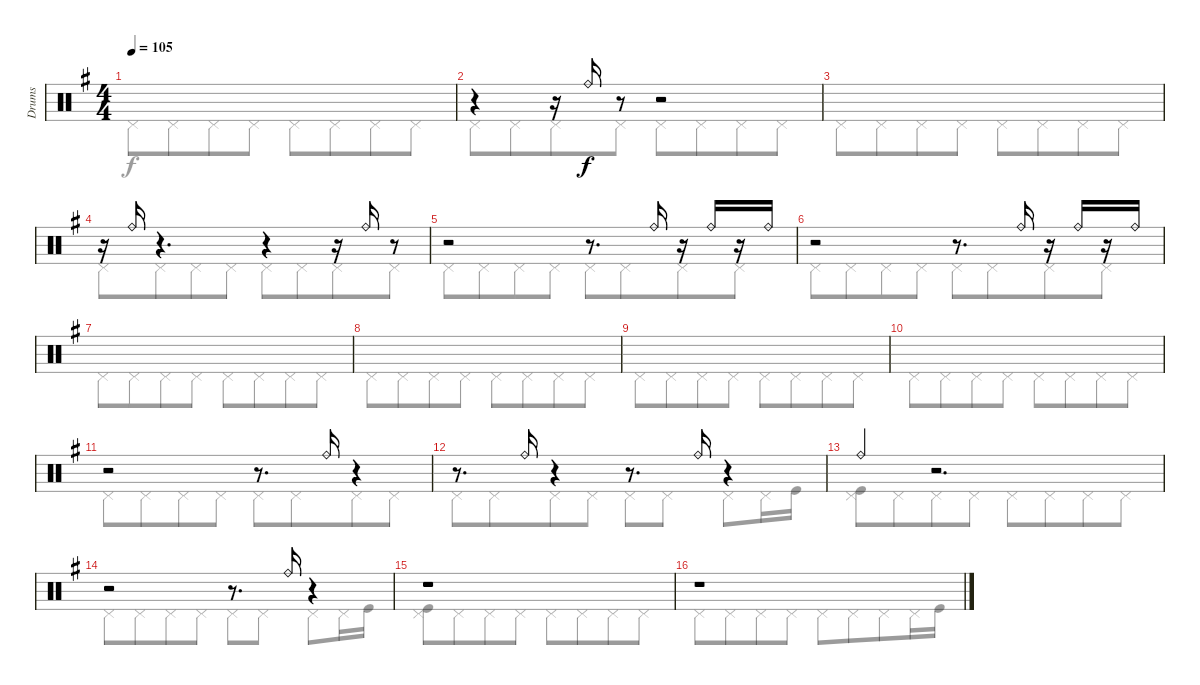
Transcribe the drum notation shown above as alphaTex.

\track ("Drums" "Drums") {instrument percussion}
\staff {score}
\articulation defaults
\voice
\ts (4 4)
\tempo 105
\clef neutral
\ks eminor
|
r.4 r.16 "Ride (bell)".16 r.8 r.2 |
|
r.16 "Ride (bell)".16 r.4{d} r.4 r.16 "Ride (bell)".16 r.8 |
r.2 r.8{d} "Ride (bell)".16 r.16 "Ride (bell)".16 r.16 "Ride (bell)".16 |
r.2 r.8{d} "Ride (bell)".16 r.16 "Ride (bell)".16 r.16 "Ride (bell)".16 |
|
|
|
|
r.2 r.8{d} "Ride (bell)".16 r.4 |
r.8{d} "Ride (bell)".16 r.4 r.8{d} "Ride (bell)".16 r.4 |
"Ride (bell)".4 r.2{d} |
r.2 r.8{d} "Ride (bell)".16 r.4 |
r.1 |
r.1
\voice
\clef neutral
\ottava regular
\simile none
\ks eminor "Pedal Hi-Hat (hit)".8{dy f} "Pedal Hi-Hat (hit)".8{beam merge} "Pedal Hi-Hat (hit)".8 "Pedal Hi-Hat (hit)".8 "Pedal Hi-Hat (hit)".8 "Pedal Hi-Hat (hit)".8{beam merge} "Pedal Hi-Hat (hit)".8 "Pedal Hi-Hat (hit)".8
|
"Pedal Hi-Hat (hit)".8 "Pedal Hi-Hat (hit)".8{beam merge} "Pedal Hi-Hat (hit)".8 "Pedal Hi-Hat (hit)".8 "Pedal Hi-Hat (hit)".8 "Pedal Hi-Hat (hit)".8{beam merge} "Pedal Hi-Hat (hit)".8 "Pedal Hi-Hat (hit)".8 |
"Pedal Hi-Hat (hit)".8 "Pedal Hi-Hat (hit)".8{beam merge} "Pedal Hi-Hat (hit)".8 "Pedal Hi-Hat (hit)".8 "Pedal Hi-Hat (hit)".8 "Pedal Hi-Hat (hit)".8{beam merge} "Pedal Hi-Hat (hit)".8 "Pedal Hi-Hat (hit)".8 |
"Pedal Hi-Hat (hit)".8 "Pedal Hi-Hat (hit)".8{beam merge} "Pedal Hi-Hat (hit)".8 "Pedal Hi-Hat (hit)".8 "Pedal Hi-Hat (hit)".8 "Pedal Hi-Hat (hit)".8{beam merge} "Pedal Hi-Hat (hit)".8 "Pedal Hi-Hat (hit)".8 |
"Pedal Hi-Hat (hit)".8 "Pedal Hi-Hat (hit)".8{beam merge} "Pedal Hi-Hat (hit)".8 "Pedal Hi-Hat (hit)".8 "Pedal Hi-Hat (hit)".8 "Pedal Hi-Hat (hit)".8{beam merge} "Pedal Hi-Hat (hit)".8 "Pedal Hi-Hat (hit)".8 |
"Pedal Hi-Hat (hit)".8 "Pedal Hi-Hat (hit)".8{beam merge} "Pedal Hi-Hat (hit)".8 "Pedal Hi-Hat (hit)".8 "Pedal Hi-Hat (hit)".8 "Pedal Hi-Hat (hit)".8{beam merge} "Pedal Hi-Hat (hit)".8 "Pedal Hi-Hat (hit)".8 |
"Pedal Hi-Hat (hit)".8 "Pedal Hi-Hat (hit)".8{beam merge} "Pedal Hi-Hat (hit)".8 "Pedal Hi-Hat (hit)".8 "Pedal Hi-Hat (hit)".8 "Pedal Hi-Hat (hit)".8{beam merge} "Pedal Hi-Hat (hit)".8 "Pedal Hi-Hat (hit)".8 |
"Pedal Hi-Hat (hit)".8 "Pedal Hi-Hat (hit)".8{beam merge} "Pedal Hi-Hat (hit)".8 "Pedal Hi-Hat (hit)".8 "Pedal Hi-Hat (hit)".8 "Pedal Hi-Hat (hit)".8{beam merge} "Pedal Hi-Hat (hit)".8 "Pedal Hi-Hat (hit)".8 |
"Pedal Hi-Hat (hit)".8 "Pedal Hi-Hat (hit)".8{beam merge} "Pedal Hi-Hat (hit)".8 "Pedal Hi-Hat (hit)".8 "Pedal Hi-Hat (hit)".8 "Pedal Hi-Hat (hit)".8{beam merge} "Pedal Hi-Hat (hit)".8 "Pedal Hi-Hat (hit)".8 |
"Pedal Hi-Hat (hit)".8 "Pedal Hi-Hat (hit)".8{beam merge} "Pedal Hi-Hat (hit)".8 "Pedal Hi-Hat (hit)".8 "Pedal Hi-Hat (hit)".8 "Pedal Hi-Hat (hit)".8{beam merge} "Pedal Hi-Hat (hit)".8 "Pedal Hi-Hat (hit)".8 |
"Pedal Hi-Hat (hit)".8 "Pedal Hi-Hat (hit)".8{beam merge} "Pedal Hi-Hat (hit)".8 "Pedal Hi-Hat (hit)".8 "Pedal Hi-Hat (hit)".8 "Pedal Hi-Hat (hit)".8{beam merge} "Pedal Hi-Hat (hit)".8 "Pedal Hi-Hat (hit)".8 |
"Pedal Hi-Hat (hit)".8 "Pedal Hi-Hat (hit)".8{beam merge} "Pedal Hi-Hat (hit)".8 "Pedal Hi-Hat (hit)".8 "Pedal Hi-Hat (hit)".8 "Pedal Hi-Hat (hit)".8 "Pedal Hi-Hat (hit)".8 "Pedal Hi-Hat (hit)".16 "Kick (hit)".16 |
("Pedal Hi-Hat (hit)" "Kick (hit)").8 "Pedal Hi-Hat (hit)".8{beam merge} "Pedal Hi-Hat (hit)".8 "Pedal Hi-Hat (hit)".8 "Pedal Hi-Hat (hit)".8 "Pedal Hi-Hat (hit)".8{beam merge} "Pedal Hi-Hat (hit)".8 "Pedal Hi-Hat (hit)".8 |
"Pedal Hi-Hat (hit)".8 "Pedal Hi-Hat (hit)".8{beam merge} "Pedal Hi-Hat (hit)".8 "Pedal Hi-Hat (hit)".8 "Pedal Hi-Hat (hit)".8 "Pedal Hi-Hat (hit)".8 "Pedal Hi-Hat (hit)".8 "Pedal Hi-Hat (hit)".16 "Kick (hit)".16 |
("Pedal Hi-Hat (hit)" "Kick (hit)").8 "Pedal Hi-Hat (hit)".8{beam merge} "Pedal Hi-Hat (hit)".8 "Pedal Hi-Hat (hit)".8 "Pedal Hi-Hat (hit)".8 "Pedal Hi-Hat (hit)".8{beam merge} "Pedal Hi-Hat (hit)".8 "Pedal Hi-Hat (hit)".8 |
"Pedal Hi-Hat (hit)".8 "Pedal Hi-Hat (hit)".8{beam merge} "Pedal Hi-Hat (hit)".8 "Pedal Hi-Hat (hit)".8 "Pedal Hi-Hat (hit)".8 "Pedal Hi-Hat (hit)".8{beam merge} "Pedal Hi-Hat (hit)".8 "Pedal Hi-Hat (hit)".16 "Kick (hit)".16
